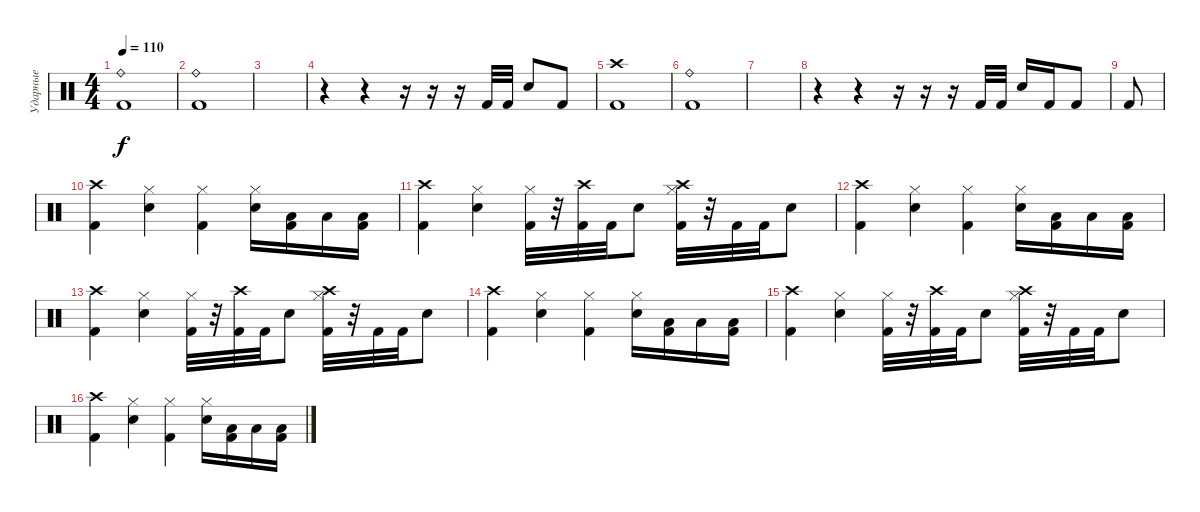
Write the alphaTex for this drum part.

\track ("Ударные" "Ударные") {instrument percussion}
\staff {score}
\articulation defaults
\ts (4 4)
\tempo 110
\clef neutral
\ks c
("Ride (bell)" "Kick (hit) 2").1{dy f} |
("Ride (bell)" "Kick (hit) 2").1 |
|
r.4 r.4 r.16 r.16 r.16 "Kick (hit) 2".32 "Kick (hit) 2".32 "Electric Snare (hit)".8 "Kick (hit) 2".8 |
("Crash high (hit)" "Kick (hit) 2").1 |
("Ride (bell)" "Kick (hit) 2").1 |
|
r.4 r.4 r.16 r.16 r.16 "Kick (hit) 2".32 "Kick (hit) 2".32 "Electric Snare (hit)".16 "Kick (hit) 2".16 "Kick (hit) 2".8 |
"Kick (hit) 2".8 |
("Crash high (hit)" "Kick (hit) 2").4 ("Hi-Hat (closed)" "Electric Snare (hit)").4 ("Kick (hit) 2" "Hi-Hat (closed)").4 ("Hi-Hat (closed)" "Electric Snare (hit)").16 ("Kick (hit) 2" "Low Tom (hit)").16 "Low Tom (hit)".16 ("Kick (hit) 2" "Low Tom (hit)").16 |
("Crash high (hit)" "Kick (hit) 2").4 ("Hi-Hat (closed)" "Electric Snare (hit)").4 ("Kick (hit) 2" "Hi-Hat (closed)").32 r.32 ("Kick (hit) 2" "Crash high (hit)").32 "Kick (hit) 2".32 "Electric Snare (hit)".8 ("Hi-Hat (closed)" "Kick (hit) 2" "Crash high (hit)").32 r.32 "Kick (hit) 2".32 "Kick (hit) 2".32 "Electric Snare (hit)".8 |
("Crash high (hit)" "Kick (hit) 2").4 ("Hi-Hat (closed)" "Electric Snare (hit)").4 ("Kick (hit) 2" "Hi-Hat (closed)").4 ("Hi-Hat (closed)" "Electric Snare (hit)").16 ("Kick (hit) 2" "Low Tom (hit)").16 "Low Tom (hit)".16 ("Kick (hit) 2" "Low Tom (hit)").16 |
("Crash high (hit)" "Kick (hit) 2").4 ("Hi-Hat (closed)" "Electric Snare (hit)").4 ("Kick (hit) 2" "Hi-Hat (closed)").32 r.32 ("Kick (hit) 2" "Crash high (hit)").32 "Kick (hit) 2".32 "Electric Snare (hit)".8 ("Hi-Hat (closed)" "Kick (hit) 2" "Crash high (hit)").32 r.32 "Kick (hit) 2".32 "Kick (hit) 2".32 "Electric Snare (hit)".8 |
("Crash high (hit)" "Kick (hit) 2").4 ("Hi-Hat (closed)" "Electric Snare (hit)").4 ("Kick (hit) 2" "Hi-Hat (closed)").4 ("Hi-Hat (closed)" "Electric Snare (hit)").16 ("Kick (hit) 2" "Low Tom (hit)").16 "Low Tom (hit)".16 ("Kick (hit) 2" "Low Tom (hit)").16 |
("Crash high (hit)" "Kick (hit) 2").4 ("Hi-Hat (closed)" "Electric Snare (hit)").4 ("Kick (hit) 2" "Hi-Hat (closed)").32 r.32 ("Kick (hit) 2" "Crash high (hit)").32 "Kick (hit) 2".32 "Electric Snare (hit)".8 ("Hi-Hat (closed)" "Kick (hit) 2" "Crash high (hit)").32 r.32 "Kick (hit) 2".32 "Kick (hit) 2".32 "Electric Snare (hit)".8 |
("Crash high (hit)" "Kick (hit) 2").4 ("Hi-Hat (closed)" "Electric Snare (hit)").4 ("Kick (hit) 2" "Hi-Hat (closed)").4 ("Hi-Hat (closed)" "Electric Snare (hit)").16 ("Kick (hit) 2" "Low Tom (hit)").16 "Low Tom (hit)".16 ("Kick (hit) 2" "Low Tom (hit)").16
